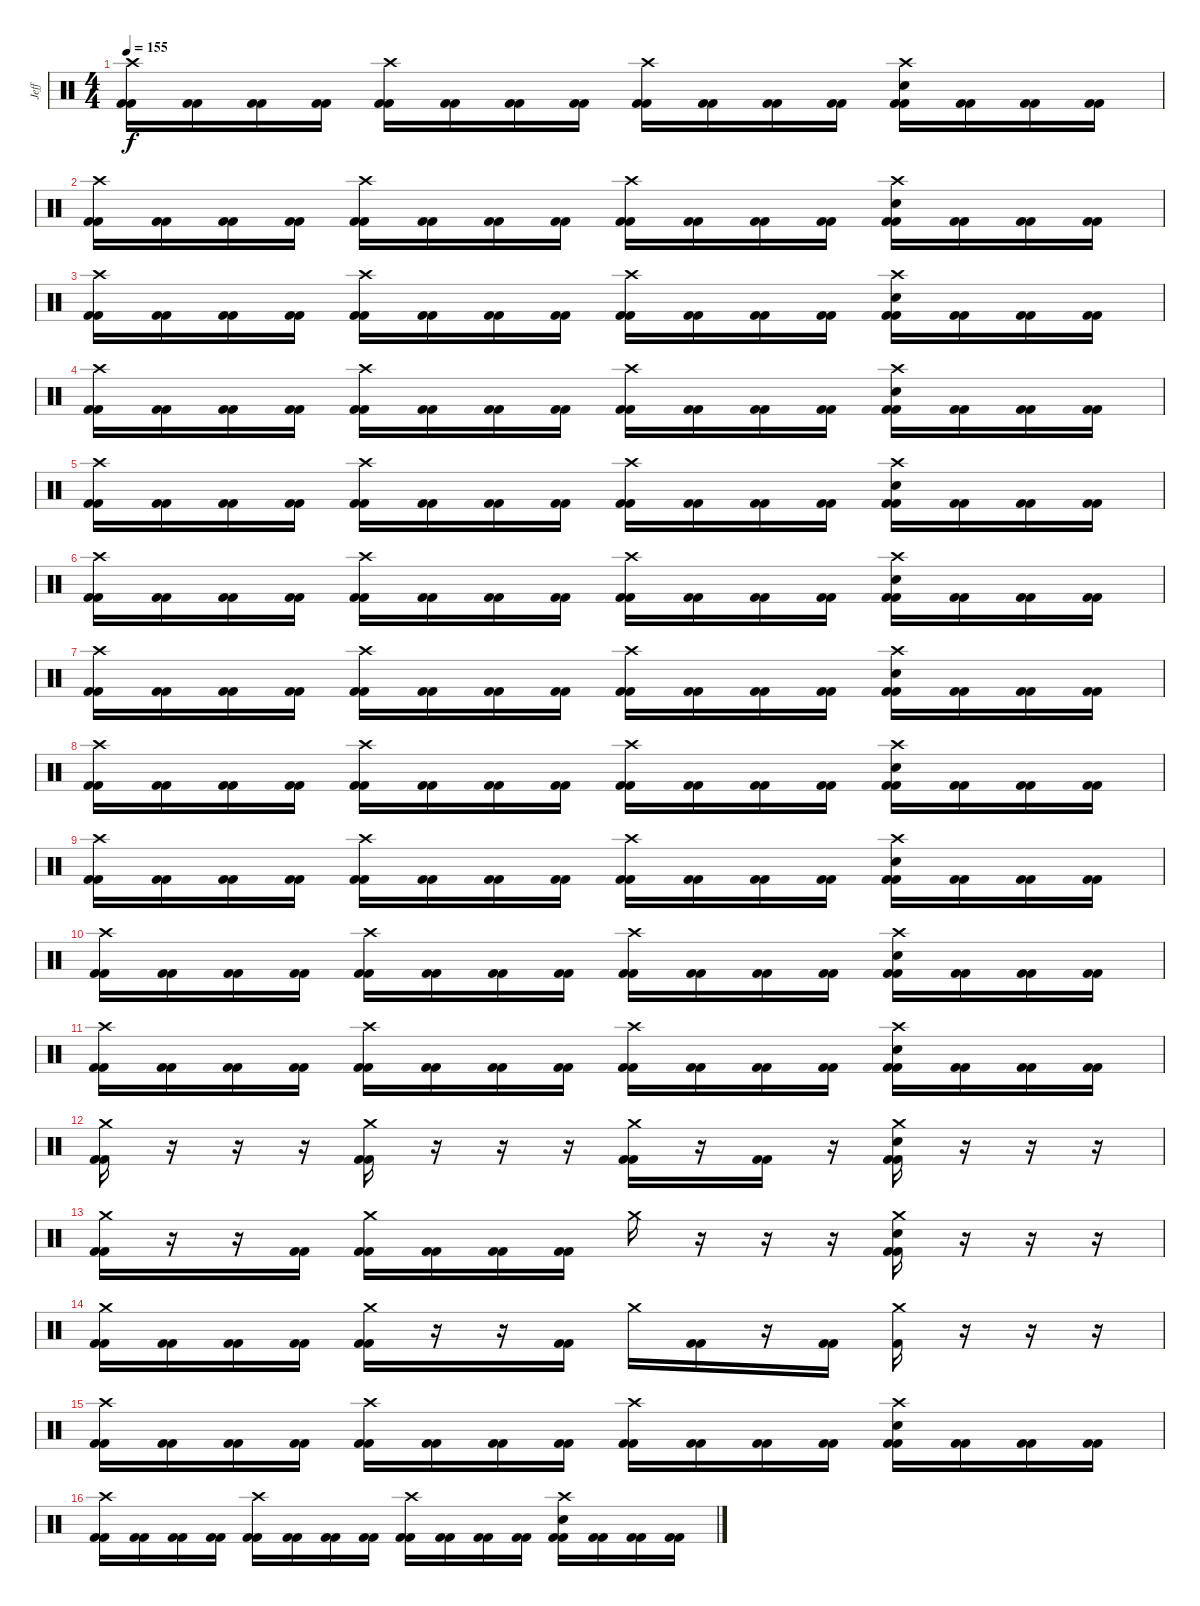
\track ("Jeff" "Jeff") {instrument percussion}
\staff {score}
\articulation defaults
\ts (4 4)
\tempo 155
\clef neutral
\ks c
("Crash high (hit)" "Kick (hit) 2" "Kick (hit) 2").16{dy f} ("Kick (hit) 2" "Kick (hit) 2").16 ("Kick (hit) 2" "Kick (hit) 2").16 ("Kick (hit) 2" "Kick (hit) 2").16 ("Crash high (hit)" "Kick (hit) 2" "Kick (hit) 2").16 ("Kick (hit) 2" "Kick (hit) 2").16 ("Kick (hit) 2" "Kick (hit) 2").16 ("Kick (hit) 2" "Kick (hit) 2").16 ("Crash high (hit)" "Kick (hit) 2" "Kick (hit) 2").16 ("Kick (hit) 2" "Kick (hit) 2").16 ("Kick (hit) 2" "Kick (hit) 2").16 ("Kick (hit) 2" "Kick (hit) 2").16 ("Crash high (hit)" "Snare (hit) 2" "Kick (hit) 2" "Kick (hit) 2").16 ("Kick (hit) 2" "Kick (hit) 2").16 ("Kick (hit) 2" "Kick (hit) 2").16 ("Kick (hit) 2" "Kick (hit) 2").16 |
("Crash high (hit)" "Kick (hit) 2" "Kick (hit) 2").16 ("Kick (hit) 2" "Kick (hit) 2").16 ("Kick (hit) 2" "Kick (hit) 2").16 ("Kick (hit) 2" "Kick (hit) 2").16 ("Crash high (hit)" "Kick (hit) 2" "Kick (hit) 2").16 ("Kick (hit) 2" "Kick (hit) 2").16 ("Kick (hit) 2" "Kick (hit) 2").16 ("Kick (hit) 2" "Kick (hit) 2").16 ("Crash high (hit)" "Kick (hit) 2" "Kick (hit) 2").16 ("Kick (hit) 2" "Kick (hit) 2").16 ("Kick (hit) 2" "Kick (hit) 2").16 ("Kick (hit) 2" "Kick (hit) 2").16 ("Crash high (hit)" "Snare (hit) 2" "Kick (hit) 2" "Kick (hit) 2").16 ("Kick (hit) 2" "Kick (hit) 2").16 ("Kick (hit) 2" "Kick (hit) 2").16 ("Kick (hit) 2" "Kick (hit) 2").16 |
("Crash high (hit)" "Kick (hit) 2" "Kick (hit) 2").16 ("Kick (hit) 2" "Kick (hit) 2").16 ("Kick (hit) 2" "Kick (hit) 2").16 ("Kick (hit) 2" "Kick (hit) 2").16 ("Crash high (hit)" "Kick (hit) 2" "Kick (hit) 2").16 ("Kick (hit) 2" "Kick (hit) 2").16 ("Kick (hit) 2" "Kick (hit) 2").16 ("Kick (hit) 2" "Kick (hit) 2").16 ("Crash high (hit)" "Kick (hit) 2" "Kick (hit) 2").16 ("Kick (hit) 2" "Kick (hit) 2").16 ("Kick (hit) 2" "Kick (hit) 2").16 ("Kick (hit) 2" "Kick (hit) 2").16 ("Crash high (hit)" "Snare (hit) 2" "Kick (hit) 2" "Kick (hit) 2").16 ("Kick (hit) 2" "Kick (hit) 2").16 ("Kick (hit) 2" "Kick (hit) 2").16 ("Kick (hit) 2" "Kick (hit) 2").16 |
("Crash high (hit)" "Kick (hit) 2" "Kick (hit) 2").16 ("Kick (hit) 2" "Kick (hit) 2").16 ("Kick (hit) 2" "Kick (hit) 2").16 ("Kick (hit) 2" "Kick (hit) 2").16 ("Crash high (hit)" "Kick (hit) 2" "Kick (hit) 2").16 ("Kick (hit) 2" "Kick (hit) 2").16 ("Kick (hit) 2" "Kick (hit) 2").16 ("Kick (hit) 2" "Kick (hit) 2").16 ("Crash high (hit)" "Kick (hit) 2" "Kick (hit) 2").16 ("Kick (hit) 2" "Kick (hit) 2").16 ("Kick (hit) 2" "Kick (hit) 2").16 ("Kick (hit) 2" "Kick (hit) 2").16 ("Crash high (hit)" "Snare (hit) 2" "Kick (hit) 2" "Kick (hit) 2").16 ("Kick (hit) 2" "Kick (hit) 2").16 ("Kick (hit) 2" "Kick (hit) 2").16 ("Kick (hit) 2" "Kick (hit) 2").16 |
("Crash high (hit)" "Kick (hit) 2" "Kick (hit) 2").16 ("Kick (hit) 2" "Kick (hit) 2").16 ("Kick (hit) 2" "Kick (hit) 2").16 ("Kick (hit) 2" "Kick (hit) 2").16 ("Crash high (hit)" "Kick (hit) 2" "Kick (hit) 2").16 ("Kick (hit) 2" "Kick (hit) 2").16 ("Kick (hit) 2" "Kick (hit) 2").16 ("Kick (hit) 2" "Kick (hit) 2").16 ("Crash high (hit)" "Kick (hit) 2" "Kick (hit) 2").16 ("Kick (hit) 2" "Kick (hit) 2").16 ("Kick (hit) 2" "Kick (hit) 2").16 ("Kick (hit) 2" "Kick (hit) 2").16 ("Crash high (hit)" "Snare (hit) 2" "Kick (hit) 2" "Kick (hit) 2").16 ("Kick (hit) 2" "Kick (hit) 2").16 ("Kick (hit) 2" "Kick (hit) 2").16 ("Kick (hit) 2" "Kick (hit) 2").16 |
("Crash high (hit)" "Kick (hit) 2" "Kick (hit) 2").16 ("Kick (hit) 2" "Kick (hit) 2").16 ("Kick (hit) 2" "Kick (hit) 2").16 ("Kick (hit) 2" "Kick (hit) 2").16 ("Crash high (hit)" "Kick (hit) 2" "Kick (hit) 2").16 ("Kick (hit) 2" "Kick (hit) 2").16 ("Kick (hit) 2" "Kick (hit) 2").16 ("Kick (hit) 2" "Kick (hit) 2").16 ("Crash high (hit)" "Kick (hit) 2" "Kick (hit) 2").16 ("Kick (hit) 2" "Kick (hit) 2").16 ("Kick (hit) 2" "Kick (hit) 2").16 ("Kick (hit) 2" "Kick (hit) 2").16 ("Crash high (hit)" "Snare (hit) 2" "Kick (hit) 2" "Kick (hit) 2").16 ("Kick (hit) 2" "Kick (hit) 2").16 ("Kick (hit) 2" "Kick (hit) 2").16 ("Kick (hit) 2" "Kick (hit) 2").16 |
("Crash high (hit)" "Kick (hit) 2" "Kick (hit) 2").16 ("Kick (hit) 2" "Kick (hit) 2").16 ("Kick (hit) 2" "Kick (hit) 2").16 ("Kick (hit) 2" "Kick (hit) 2").16 ("Crash high (hit)" "Kick (hit) 2" "Kick (hit) 2").16 ("Kick (hit) 2" "Kick (hit) 2").16 ("Kick (hit) 2" "Kick (hit) 2").16 ("Kick (hit) 2" "Kick (hit) 2").16 ("Crash high (hit)" "Kick (hit) 2" "Kick (hit) 2").16 ("Kick (hit) 2" "Kick (hit) 2").16 ("Kick (hit) 2" "Kick (hit) 2").16 ("Kick (hit) 2" "Kick (hit) 2").16 ("Crash high (hit)" "Snare (hit) 2" "Kick (hit) 2" "Kick (hit) 2").16 ("Kick (hit) 2" "Kick (hit) 2").16 ("Kick (hit) 2" "Kick (hit) 2").16 ("Kick (hit) 2" "Kick (hit) 2").16 |
("Crash high (hit)" "Kick (hit) 2" "Kick (hit) 2").16 ("Kick (hit) 2" "Kick (hit) 2").16 ("Kick (hit) 2" "Kick (hit) 2").16 ("Kick (hit) 2" "Kick (hit) 2").16 ("Crash high (hit)" "Kick (hit) 2" "Kick (hit) 2").16 ("Kick (hit) 2" "Kick (hit) 2").16 ("Kick (hit) 2" "Kick (hit) 2").16 ("Kick (hit) 2" "Kick (hit) 2").16 ("Crash high (hit)" "Kick (hit) 2" "Kick (hit) 2").16 ("Kick (hit) 2" "Kick (hit) 2").16 ("Kick (hit) 2" "Kick (hit) 2").16 ("Kick (hit) 2" "Kick (hit) 2").16 ("Crash high (hit)" "Snare (hit) 2" "Kick (hit) 2" "Kick (hit) 2").16 ("Kick (hit) 2" "Kick (hit) 2").16 ("Kick (hit) 2" "Kick (hit) 2").16 ("Kick (hit) 2" "Kick (hit) 2").16 |
("Crash high (hit)" "Kick (hit) 2" "Kick (hit) 2").16 ("Kick (hit) 2" "Kick (hit) 2").16 ("Kick (hit) 2" "Kick (hit) 2").16 ("Kick (hit) 2" "Kick (hit) 2").16 ("Crash high (hit)" "Kick (hit) 2" "Kick (hit) 2").16 ("Kick (hit) 2" "Kick (hit) 2").16 ("Kick (hit) 2" "Kick (hit) 2").16 ("Kick (hit) 2" "Kick (hit) 2").16 ("Crash high (hit)" "Kick (hit) 2" "Kick (hit) 2").16 ("Kick (hit) 2" "Kick (hit) 2").16 ("Kick (hit) 2" "Kick (hit) 2").16 ("Kick (hit) 2" "Kick (hit) 2").16 ("Crash high (hit)" "Snare (hit) 2" "Kick (hit) 2" "Kick (hit) 2").16 ("Kick (hit) 2" "Kick (hit) 2").16 ("Kick (hit) 2" "Kick (hit) 2").16 ("Kick (hit) 2" "Kick (hit) 2").16 |
("Crash high (hit)" "Kick (hit) 2" "Kick (hit) 2").16 ("Kick (hit) 2" "Kick (hit) 2").16 ("Kick (hit) 2" "Kick (hit) 2").16 ("Kick (hit) 2" "Kick (hit) 2").16 ("Crash high (hit)" "Kick (hit) 2" "Kick (hit) 2").16 ("Kick (hit) 2" "Kick (hit) 2").16 ("Kick (hit) 2" "Kick (hit) 2").16 ("Kick (hit) 2" "Kick (hit) 2").16 ("Crash high (hit)" "Kick (hit) 2" "Kick (hit) 2").16 ("Kick (hit) 2" "Kick (hit) 2").16 ("Kick (hit) 2" "Kick (hit) 2").16 ("Kick (hit) 2" "Kick (hit) 2").16 ("Crash high (hit)" "Snare (hit) 2" "Kick (hit) 2" "Kick (hit) 2").16 ("Kick (hit) 2" "Kick (hit) 2").16 ("Kick (hit) 2" "Kick (hit) 2").16 ("Kick (hit) 2" "Kick (hit) 2").16 |
("Crash high (hit)" "Kick (hit) 2" "Kick (hit) 2").16 ("Kick (hit) 2" "Kick (hit) 2").16 ("Kick (hit) 2" "Kick (hit) 2").16 ("Kick (hit) 2" "Kick (hit) 2").16 ("Crash high (hit)" "Kick (hit) 2" "Kick (hit) 2").16 ("Kick (hit) 2" "Kick (hit) 2").16 ("Kick (hit) 2" "Kick (hit) 2").16 ("Kick (hit) 2" "Kick (hit) 2").16 ("Crash high (hit)" "Kick (hit) 2" "Kick (hit) 2").16 ("Kick (hit) 2" "Kick (hit) 2").16 ("Kick (hit) 2" "Kick (hit) 2").16 ("Kick (hit) 2" "Kick (hit) 2").16 ("Crash high (hit)" "Snare (hit) 2" "Kick (hit) 2" "Kick (hit) 2").16 ("Kick (hit) 2" "Kick (hit) 2").16 ("Kick (hit) 2" "Kick (hit) 2").16 ("Kick (hit) 2" "Kick (hit) 2").16 |
("Crash medium (hit)" "Kick (hit) 2" "Kick (hit) 2").16 r.16 r.16 r.16 ("Crash medium (hit)" "Kick (hit) 2" "Kick (hit) 2").16 r.16 r.16 r.16 ("Crash medium (hit)" "Kick (hit) 2" "Kick (hit) 2").16 r.16 ("Kick (hit) 2" "Kick (hit) 2").16 r.16 ("Crash medium (hit)" "Snare (hit) 2" "Kick (hit) 2" "Kick (hit) 2").16 r.16 r.16 r.16 |
("Crash medium (hit)" "Kick (hit) 2" "Kick (hit) 2").16 r.16 r.16 ("Kick (hit) 2" "Kick (hit) 2").16 ("Crash medium (hit)" "Kick (hit) 2" "Kick (hit) 2").16 ("Kick (hit) 2" "Kick (hit) 2").16 ("Kick (hit) 2" "Kick (hit) 2").16 ("Kick (hit) 2" "Kick (hit) 2").16 "Crash medium (hit)".16 r.16 r.16 r.16 ("Crash medium (hit)" "Snare (hit) 2" "Kick (hit) 2" "Kick (hit) 2").16 r.16 r.16 r.16 |
("Crash medium (hit)" "Kick (hit) 2" "Kick (hit) 2").16 ("Kick (hit) 2" "Kick (hit) 2").16 ("Kick (hit) 2" "Kick (hit) 2").16 ("Kick (hit) 2" "Kick (hit) 2").16 ("Crash medium (hit)" "Kick (hit) 2" "Kick (hit) 2").16 r.16 r.16 ("Kick (hit) 2" "Kick (hit) 2").16 "Crash medium (hit)".16 ("Kick (hit) 2" "Kick (hit) 2").16 r.16 ("Kick (hit) 2" "Kick (hit) 2").16 ("Crash medium (hit)" "Kick (hit) 2").16 r.16 r.16 r.16 |
("Crash high (hit)" "Kick (hit) 2" "Kick (hit) 2").16 ("Kick (hit) 2" "Kick (hit) 2").16 ("Kick (hit) 2" "Kick (hit) 2").16 ("Kick (hit) 2" "Kick (hit) 2").16 ("Crash high (hit)" "Kick (hit) 2" "Kick (hit) 2").16 ("Kick (hit) 2" "Kick (hit) 2").16 ("Kick (hit) 2" "Kick (hit) 2").16 ("Kick (hit) 2" "Kick (hit) 2").16 ("Crash high (hit)" "Kick (hit) 2" "Kick (hit) 2").16 ("Kick (hit) 2" "Kick (hit) 2").16 ("Kick (hit) 2" "Kick (hit) 2").16 ("Kick (hit) 2" "Kick (hit) 2").16 ("Crash high (hit)" "Snare (hit) 2" "Kick (hit) 2" "Kick (hit) 2").16 ("Kick (hit) 2" "Kick (hit) 2").16 ("Kick (hit) 2" "Kick (hit) 2").16 ("Kick (hit) 2" "Kick (hit) 2").16 |
("Crash high (hit)" "Kick (hit) 2" "Kick (hit) 2").16 ("Kick (hit) 2" "Kick (hit) 2").16 ("Kick (hit) 2" "Kick (hit) 2").16 ("Kick (hit) 2" "Kick (hit) 2").16 ("Crash high (hit)" "Kick (hit) 2" "Kick (hit) 2").16 ("Kick (hit) 2" "Kick (hit) 2").16 ("Kick (hit) 2" "Kick (hit) 2").16 ("Kick (hit) 2" "Kick (hit) 2").16 ("Crash high (hit)" "Kick (hit) 2" "Kick (hit) 2").16 ("Kick (hit) 2" "Kick (hit) 2").16 ("Kick (hit) 2" "Kick (hit) 2").16 ("Kick (hit) 2" "Kick (hit) 2").16 ("Crash high (hit)" "Snare (hit) 2" "Kick (hit) 2" "Kick (hit) 2").16 ("Kick (hit) 2" "Kick (hit) 2").16 ("Kick (hit) 2" "Kick (hit) 2").16 ("Kick (hit) 2" "Kick (hit) 2").16
